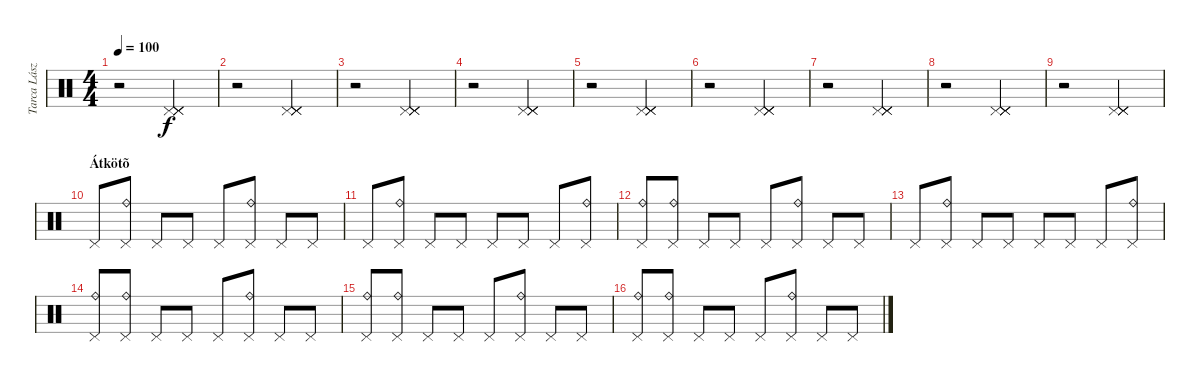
\track ("Tarca László" "Tarca Lász") {instrument percussion}
\staff {score}
\articulation defaults
\ts (4 4)
\tempo 100
\clef neutral
\ks c
r.2{dy f} ("Pedal Hi-Hat (hit)" "Pedal Hi-Hat (hit)" "Pedal Hi-Hat (hit)" "Pedal Hi-Hat (hit)").2 |
r.2 ("Pedal Hi-Hat (hit)" "Pedal Hi-Hat (hit)" "Pedal Hi-Hat (hit)" "Pedal Hi-Hat (hit)").2 |
r.2 ("Pedal Hi-Hat (hit)" "Pedal Hi-Hat (hit)" "Pedal Hi-Hat (hit)" "Pedal Hi-Hat (hit)").2 |
r.2 ("Pedal Hi-Hat (hit)" "Pedal Hi-Hat (hit)" "Pedal Hi-Hat (hit)" "Pedal Hi-Hat (hit)").2 |
r.2 ("Pedal Hi-Hat (hit)" "Pedal Hi-Hat (hit)" "Pedal Hi-Hat (hit)" "Pedal Hi-Hat (hit)").2 |
r.2 ("Pedal Hi-Hat (hit)" "Pedal Hi-Hat (hit)" "Pedal Hi-Hat (hit)" "Pedal Hi-Hat (hit)").2 |
r.2 ("Pedal Hi-Hat (hit)" "Pedal Hi-Hat (hit)" "Pedal Hi-Hat (hit)" "Pedal Hi-Hat (hit)").2 |
r.2 ("Pedal Hi-Hat (hit)" "Pedal Hi-Hat (hit)" "Pedal Hi-Hat (hit)" "Pedal Hi-Hat (hit)").2 |
r.2 ("Pedal Hi-Hat (hit)" "Pedal Hi-Hat (hit)" "Pedal Hi-Hat (hit)" "Pedal Hi-Hat (hit)").2 |
\section ("" "Átkötõ")
"Pedal Hi-Hat (hit)".8 ("Ride (bell)" "Pedal Hi-Hat (hit)").8 "Pedal Hi-Hat (hit)".8 "Pedal Hi-Hat (hit)".8 "Pedal Hi-Hat (hit)".8 ("Ride (bell)" "Pedal Hi-Hat (hit)").8 "Pedal Hi-Hat (hit)".8 "Pedal Hi-Hat (hit)".8 |
"Pedal Hi-Hat (hit)".8 ("Ride (bell)" "Pedal Hi-Hat (hit)").8 "Pedal Hi-Hat (hit)".8 "Pedal Hi-Hat (hit)".8 "Pedal Hi-Hat (hit)".8 "Pedal Hi-Hat (hit)".8 "Pedal Hi-Hat (hit)".8 ("Ride (bell)" "Pedal Hi-Hat (hit)").8 |
("Ride (bell)" "Pedal Hi-Hat (hit)").8 ("Ride (bell)" "Pedal Hi-Hat (hit)").8 "Pedal Hi-Hat (hit)".8 "Pedal Hi-Hat (hit)".8 "Pedal Hi-Hat (hit)".8 ("Ride (bell)" "Pedal Hi-Hat (hit)").8 "Pedal Hi-Hat (hit)".8 "Pedal Hi-Hat (hit)".8 |
"Pedal Hi-Hat (hit)".8 ("Ride (bell)" "Pedal Hi-Hat (hit)").8 "Pedal Hi-Hat (hit)".8 "Pedal Hi-Hat (hit)".8 "Pedal Hi-Hat (hit)".8 "Pedal Hi-Hat (hit)".8 "Pedal Hi-Hat (hit)".8 ("Ride (bell)" "Pedal Hi-Hat (hit)").8 |
("Ride (bell)" "Pedal Hi-Hat (hit)").8 ("Ride (bell)" "Pedal Hi-Hat (hit)").8 "Pedal Hi-Hat (hit)".8 "Pedal Hi-Hat (hit)".8 "Pedal Hi-Hat (hit)".8 ("Ride (bell)" "Pedal Hi-Hat (hit)").8 "Pedal Hi-Hat (hit)".8 "Pedal Hi-Hat (hit)".8 |
("Ride (bell)" "Pedal Hi-Hat (hit)").8 ("Ride (bell)" "Pedal Hi-Hat (hit)").8 "Pedal Hi-Hat (hit)".8 "Pedal Hi-Hat (hit)".8 "Pedal Hi-Hat (hit)".8 ("Ride (bell)" "Pedal Hi-Hat (hit)").8 "Pedal Hi-Hat (hit)".8 "Pedal Hi-Hat (hit)".8 |
("Ride (bell)" "Pedal Hi-Hat (hit)").8 ("Ride (bell)" "Pedal Hi-Hat (hit)").8 "Pedal Hi-Hat (hit)".8 "Pedal Hi-Hat (hit)".8 "Pedal Hi-Hat (hit)".8 ("Ride (bell)" "Pedal Hi-Hat (hit)").8 "Pedal Hi-Hat (hit)".8 "Pedal Hi-Hat (hit)".8
